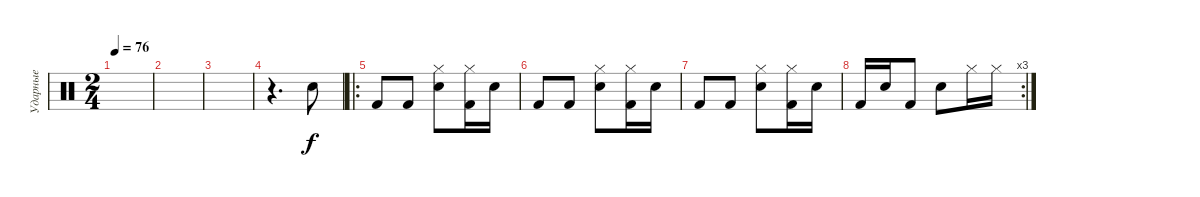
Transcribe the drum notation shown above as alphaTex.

\track ("Ударные" "Ударные") {instrument percussion}
\staff {score}
\articulation defaults
\ts (2 4)
\tempo 76
\clef neutral
\ks c
|
|
|
r.4{d} "Electric Snare (hit)".8 |
\ro "Kick (hit) 2".8 "Kick (hit) 2".8
("Electric Snare (hit)" "Hi-Hat (closed)").8 ("Kick (hit) 2" "Hi-Hat (closed)").16 "Electric Snare (hit)".16 |
"Kick (hit) 2".8 "Kick (hit) 2".8 ("Electric Snare (hit)" "Hi-Hat (closed)").8 ("Kick (hit) 2" "Hi-Hat (closed)").16 "Electric Snare (hit)".16 |
"Kick (hit) 2".8 "Kick (hit) 2".8 ("Electric Snare (hit)" "Hi-Hat (closed)").8 ("Kick (hit) 2" "Hi-Hat (closed)").16 "Electric Snare (hit)".16 |
\rc 3 "Kick (hit) 2".16 "Electric Snare (hit)".16 "Kick (hit) 2".8 "Electric Snare (hit)".8 "Hi-Hat (closed)".16 "Hi-Hat (closed)".16
